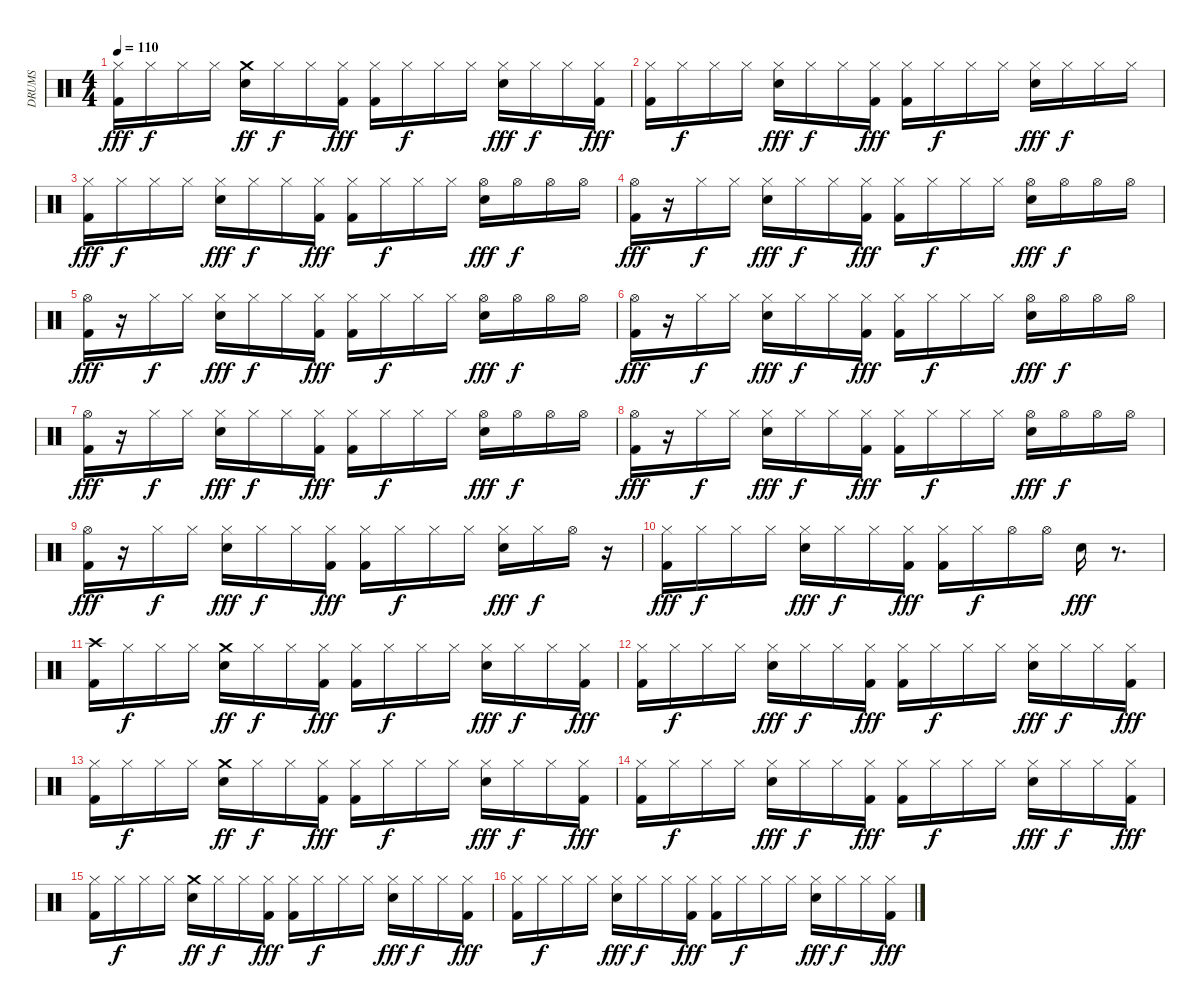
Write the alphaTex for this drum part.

\track ("DRUMS" "DRUMS") {solo instrument percussion}
\staff {score}
\articulation defaults
\ts (4 4)
\tempo 110
\clef neutral
\ks c
("Hi-Hat (closed)" "Kick (hit) 2").16{dy fff} "Hi-Hat (closed)".16{dy f} "Hi-Hat (closed)".16 "Hi-Hat (closed)".16 ("Electric Snare (hit)" "Crash medium (hit)").16{dy ff} "Hi-Hat (closed)".16{dy f} "Hi-Hat (closed)".16 ("Hi-Hat (closed)" "Kick (hit) 2").16{dy fff} ("Kick (hit) 2" "Hi-Hat (closed)").16 "Hi-Hat (closed)".16{dy f} "Hi-Hat (closed)".16 "Hi-Hat (closed)".16 ("Electric Snare (hit)" "Hi-Hat (closed)").16{dy fff} "Hi-Hat (closed)".16{dy f} "Hi-Hat (closed)".16 ("Hi-Hat (closed)" "Kick (hit) 2").16{dy fff} |
("Kick (hit) 2" "Hi-Hat (closed)").16 "Hi-Hat (closed)".16{dy f} "Hi-Hat (closed)".16 "Hi-Hat (closed)".16 ("Electric Snare (hit)" "Hi-Hat (closed)").16{dy fff} "Hi-Hat (closed)".16{dy f} "Hi-Hat (closed)".16 ("Hi-Hat (closed)" "Kick (hit) 2").16{dy fff} ("Kick (hit) 2" "Hi-Hat (closed)").16 "Hi-Hat (closed)".16{dy f} "Hi-Hat (closed)".16 "Hi-Hat (closed)".16 ("Hi-Hat (closed)" "Electric Snare (hit)").16{dy fff} "Hi-Hat (closed)".16{dy f} "Hi-Hat (closed)".16 "Hi-Hat (closed)".16 |
("Hi-Hat (closed)" "Kick (hit) 2").16{dy fff} "Hi-Hat (closed)".16{dy f} "Hi-Hat (closed)".16 "Hi-Hat (closed)".16 ("Electric Snare (hit)" "Hi-Hat (closed)").16{dy fff} "Hi-Hat (closed)".16{dy f} "Hi-Hat (closed)".16 ("Hi-Hat (closed)" "Kick (hit) 2").16{dy fff} ("Kick (hit) 2" "Hi-Hat (closed)").16 "Hi-Hat (closed)".16{dy f} "Hi-Hat (closed)".16 "Hi-Hat (closed)".16 ("Electric Snare (hit)" "Hi-Hat (open)").16{dy fff} "Hi-Hat (open)".16{dy f} "Hi-Hat (open)".16 "Hi-Hat (open)".16 |
("Kick (hit) 2" "Hi-Hat (open)").16{dy fff} r.16 "Hi-Hat (closed)".16{dy f} "Hi-Hat (closed)".16 ("Electric Snare (hit)" "Hi-Hat (closed)").16{dy fff} "Hi-Hat (closed)".16{dy f} "Hi-Hat (closed)".16 ("Hi-Hat (closed)" "Kick (hit) 2").16{dy fff} ("Kick (hit) 2" "Hi-Hat (closed)").16 "Hi-Hat (closed)".16{dy f} "Hi-Hat (closed)".16 "Hi-Hat (closed)".16 ("Electric Snare (hit)" "Hi-Hat (open)").16{dy fff} "Hi-Hat (open)".16{dy f} "Hi-Hat (open)".16 "Hi-Hat (open)".16 |
("Hi-Hat (open)" "Kick (hit) 2").16{dy fff} r.16 "Hi-Hat (closed)".16{dy f} "Hi-Hat (closed)".16 ("Electric Snare (hit)" "Hi-Hat (closed)").16{dy fff} "Hi-Hat (closed)".16{dy f} "Hi-Hat (closed)".16 ("Hi-Hat (closed)" "Kick (hit) 2").16{dy fff} ("Kick (hit) 2" "Hi-Hat (closed)").16 "Hi-Hat (closed)".16{dy f} "Hi-Hat (closed)".16 "Hi-Hat (closed)".16 ("Electric Snare (hit)" "Hi-Hat (open)").16{dy fff} "Hi-Hat (open)".16{dy f} "Hi-Hat (open)".16 "Hi-Hat (open)".16 |
("Kick (hit) 2" "Hi-Hat (open)").16{dy fff} r.16 "Hi-Hat (closed)".16{dy f} "Hi-Hat (closed)".16 ("Electric Snare (hit)" "Hi-Hat (closed)").16{dy fff} "Hi-Hat (closed)".16{dy f} "Hi-Hat (closed)".16 ("Hi-Hat (closed)" "Kick (hit) 2").16{dy fff} ("Kick (hit) 2" "Hi-Hat (closed)").16 "Hi-Hat (closed)".16{dy f} "Hi-Hat (closed)".16 "Hi-Hat (closed)".16 ("Electric Snare (hit)" "Hi-Hat (open)").16{dy fff} "Hi-Hat (open)".16{dy f} "Hi-Hat (open)".16 "Hi-Hat (open)".16 |
("Hi-Hat (open)" "Kick (hit) 2").16{dy fff} r.16 "Hi-Hat (closed)".16{dy f} "Hi-Hat (closed)".16 ("Electric Snare (hit)" "Hi-Hat (closed)").16{dy fff} "Hi-Hat (closed)".16{dy f} "Hi-Hat (closed)".16 ("Hi-Hat (closed)" "Kick (hit) 2").16{dy fff} ("Kick (hit) 2" "Hi-Hat (closed)").16 "Hi-Hat (closed)".16{dy f} "Hi-Hat (closed)".16 "Hi-Hat (closed)".16 ("Electric Snare (hit)" "Hi-Hat (open)").16{dy fff} "Hi-Hat (open)".16{dy f} "Hi-Hat (open)".16 "Hi-Hat (open)".16 |
("Kick (hit) 2" "Hi-Hat (open)").16{dy fff} r.16 "Hi-Hat (closed)".16{dy f} "Hi-Hat (closed)".16 ("Electric Snare (hit)" "Hi-Hat (closed)").16{dy fff} "Hi-Hat (closed)".16{dy f} "Hi-Hat (closed)".16 ("Hi-Hat (closed)" "Kick (hit) 2").16{dy fff} ("Kick (hit) 2" "Hi-Hat (closed)").16 "Hi-Hat (closed)".16{dy f} "Hi-Hat (closed)".16 "Hi-Hat (closed)".16 ("Electric Snare (hit)" "Hi-Hat (open)").16{dy fff} "Hi-Hat (open)".16{dy f} "Hi-Hat (open)".16 "Hi-Hat (open)".16 |
("Hi-Hat (open)" "Kick (hit) 2").16{dy fff} r.16 "Hi-Hat (closed)".16{dy f} "Hi-Hat (closed)".16 ("Electric Snare (hit)" "Hi-Hat (closed)").16{dy fff} "Hi-Hat (closed)".16{dy f} "Hi-Hat (closed)".16 ("Hi-Hat (closed)" "Kick (hit) 2").16{dy fff} ("Kick (hit) 2" "Hi-Hat (closed)").16 "Hi-Hat (closed)".16{dy f} "Hi-Hat (closed)".16 "Hi-Hat (closed)".16 ("Electric Snare (hit)" "Hi-Hat (closed)").16{dy fff} "Hi-Hat (closed)".16{dy f} "Hi-Hat (open)".16 r.16 |
("Kick (hit) 2" "Hi-Hat (closed)").16{dy fff} "Hi-Hat (closed)".16{dy f} "Hi-Hat (closed)".16 "Hi-Hat (closed)".16 ("Electric Snare (hit)" "Hi-Hat (closed)").16{dy fff} "Hi-Hat (closed)".16{dy f} "Hi-Hat (closed)".16 ("Hi-Hat (closed)" "Kick (hit) 2").16{dy fff} ("Kick (hit) 2" "Hi-Hat (closed)").16 "Hi-Hat (closed)".16{dy f} "Hi-Hat (open)".16 "Hi-Hat (open)".16 "Electric Snare (hit)".16{dy fff} r.8{d} |
("Crash high (hit)" "Kick (hit) 2").16 "Hi-Hat (closed)".16{dy f} "Hi-Hat (closed)".16 "Hi-Hat (closed)".16 ("Electric Snare (hit)" "Crash medium (hit)").16{dy ff} "Hi-Hat (closed)".16{dy f} "Hi-Hat (closed)".16 ("Hi-Hat (closed)" "Kick (hit) 2").16{dy fff} ("Kick (hit) 2" "Hi-Hat (closed)").16 "Hi-Hat (closed)".16{dy f} "Hi-Hat (closed)".16 "Hi-Hat (closed)".16 ("Electric Snare (hit)" "Hi-Hat (closed)").16{dy fff} "Hi-Hat (closed)".16{dy f} "Hi-Hat (closed)".16 ("Hi-Hat (closed)" "Kick (hit) 2").16{dy fff} |
("Kick (hit) 2" "Hi-Hat (closed)").16 "Hi-Hat (closed)".16{dy f} "Hi-Hat (closed)".16 "Hi-Hat (closed)".16 ("Electric Snare (hit)" "Hi-Hat (closed)").16{dy fff} "Hi-Hat (closed)".16{dy f} "Hi-Hat (closed)".16 ("Hi-Hat (closed)" "Kick (hit) 2").16{dy fff} ("Kick (hit) 2" "Hi-Hat (closed)").16 "Hi-Hat (closed)".16{dy f} "Hi-Hat (closed)".16 "Hi-Hat (closed)".16 ("Electric Snare (hit)" "Hi-Hat (closed)").16{dy fff} "Hi-Hat (closed)".16{dy f} "Hi-Hat (closed)".16 ("Hi-Hat (closed)" "Kick (hit) 2").16{dy fff} |
("Hi-Hat (closed)" "Kick (hit) 2").16 "Hi-Hat (closed)".16{dy f} "Hi-Hat (closed)".16 "Hi-Hat (closed)".16 ("Electric Snare (hit)" "Crash medium (hit)").16{dy ff} "Hi-Hat (closed)".16{dy f} "Hi-Hat (closed)".16 ("Hi-Hat (closed)" "Kick (hit) 2").16{dy fff} ("Kick (hit) 2" "Hi-Hat (closed)").16 "Hi-Hat (closed)".16{dy f} "Hi-Hat (closed)".16 "Hi-Hat (closed)".16 ("Electric Snare (hit)" "Hi-Hat (closed)").16{dy fff} "Hi-Hat (closed)".16{dy f} "Hi-Hat (closed)".16 ("Hi-Hat (closed)" "Kick (hit) 2").16{dy fff} |
("Kick (hit) 2" "Hi-Hat (closed)").16 "Hi-Hat (closed)".16{dy f} "Hi-Hat (closed)".16 "Hi-Hat (closed)".16 ("Electric Snare (hit)" "Hi-Hat (closed)").16{dy fff} "Hi-Hat (closed)".16{dy f} "Hi-Hat (closed)".16 ("Hi-Hat (closed)" "Kick (hit) 2").16{dy fff} ("Kick (hit) 2" "Hi-Hat (closed)").16 "Hi-Hat (closed)".16{dy f} "Hi-Hat (closed)".16 "Hi-Hat (closed)".16 ("Electric Snare (hit)" "Hi-Hat (closed)").16{dy fff} "Hi-Hat (closed)".16{dy f} "Hi-Hat (closed)".16 ("Hi-Hat (closed)" "Kick (hit) 2").16{dy fff} |
("Hi-Hat (closed)" "Kick (hit) 2").16 "Hi-Hat (closed)".16{dy f} "Hi-Hat (closed)".16 "Hi-Hat (closed)".16 ("Electric Snare (hit)" "Crash medium (hit)").16{dy ff} "Hi-Hat (closed)".16{dy f} "Hi-Hat (closed)".16 ("Hi-Hat (closed)" "Kick (hit) 2").16{dy fff} ("Kick (hit) 2" "Hi-Hat (closed)").16 "Hi-Hat (closed)".16{dy f} "Hi-Hat (closed)".16 "Hi-Hat (closed)".16 ("Electric Snare (hit)" "Hi-Hat (closed)").16{dy fff} "Hi-Hat (closed)".16{dy f} "Hi-Hat (closed)".16 ("Hi-Hat (closed)" "Kick (hit) 2").16{dy fff} |
("Kick (hit) 2" "Hi-Hat (closed)").16 "Hi-Hat (closed)".16{dy f} "Hi-Hat (closed)".16 "Hi-Hat (closed)".16 ("Electric Snare (hit)" "Hi-Hat (closed)").16{dy fff} "Hi-Hat (closed)".16{dy f} "Hi-Hat (closed)".16 ("Hi-Hat (closed)" "Kick (hit) 2").16{dy fff} ("Kick (hit) 2" "Hi-Hat (closed)").16 "Hi-Hat (closed)".16{dy f} "Hi-Hat (closed)".16 "Hi-Hat (closed)".16 ("Electric Snare (hit)" "Hi-Hat (closed)").16{dy fff} "Hi-Hat (closed)".16{dy f} "Hi-Hat (closed)".16 ("Hi-Hat (closed)" "Kick (hit) 2").16{dy fff}
